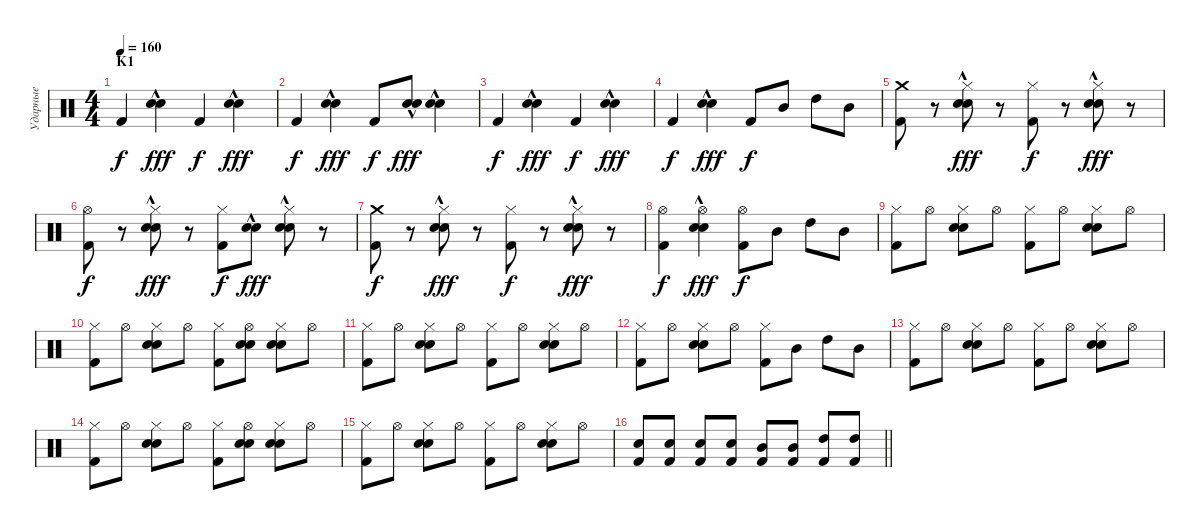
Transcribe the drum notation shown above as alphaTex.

\track ("Ударные" "Ударные") {instrument percussion}
\staff {score}
\articulation defaults
\ts (4 4)
\section ("" "K1")
\tempo 160
\clef neutral
\ks c "Kick (hit) 2".4{dy f}
("Hand Clap (hit)"{hac} "Snare (hit) 2").4{dy fff} "Kick (hit) 2".4{dy f} ("Hand Clap (hit)"{hac} "Snare (hit) 2").4{dy fff} |
"Kick (hit) 2".4{dy f} ("Hand Clap (hit)"{hac} "Snare (hit) 2").4{dy fff} "Kick (hit) 2".8{dy f} ("Hand Clap (hit)"{hac} "Snare (hit) 2").8{dy fff} ("Snare (hit) 2"{hac} "Hand Clap (hit)").4 |
"Kick (hit) 2".4{dy f} ("Hand Clap (hit)"{hac} "Snare (hit) 2").4{dy fff} "Kick (hit) 2".4{dy f} ("Hand Clap (hit)"{hac} "Snare (hit) 2").4{dy fff} |
"Kick (hit) 2".4{dy f} ("Hand Clap (hit)"{hac} "Snare (hit) 2").4{dy fff} "Kick (hit) 2".8{dy f} "Mid Tom (hit)".8 "High Tom (hit)".8 "Mid Tom (hit)".8 |
("Kick (hit) 2" "Crash medium (hit)").8 r.8 ("Hand Clap (hit)"{hac} "Snare (hit) 2" "Hi-Hat (closed)").8{dy fff} r.8 ("Kick (hit) 2" "Hi-Hat (closed)").8{dy f} r.8 ("Hand Clap (hit)"{hac} "Snare (hit) 2" "Hi-Hat (closed)").8{dy fff} r.8 |
("Kick (hit) 2" "Hi-Hat (open)").8{dy f} r.8 ("Hand Clap (hit)"{hac} "Snare (hit) 2" "Hi-Hat (closed)").8{dy fff} r.8 ("Kick (hit) 2" "Hi-Hat (closed)").8{dy f} ("Hand Clap (hit)"{hac} "Snare (hit) 2").8{dy fff} ("Hand Clap (hit)"{hac} "Snare (hit) 2" "Hi-Hat (closed)").8 r.8 |
("Kick (hit) 2" "Crash medium (hit)").8{dy f} r.8 ("Hand Clap (hit)"{hac} "Snare (hit) 2" "Hi-Hat (closed)").8{dy fff} r.8 ("Kick (hit) 2" "Hi-Hat (closed)").8{dy f} r.8 ("Hand Clap (hit)"{hac} "Snare (hit) 2" "Hi-Hat (closed)").8{dy fff} r.8 |
("Kick (hit) 2" "Hi-Hat (open)").4{dy f} ("Hand Clap (hit)"{hac} "Snare (hit) 2" "Hi-Hat (open)").4{dy fff} ("Kick (hit) 2" "Hi-Hat (open)").8{dy f} "Mid Tom (hit)".8 "High Tom (hit)".8 "Mid Tom (hit)".8 |
("Hi-Hat (closed)" "Kick (hit) 2").8 "Hi-Hat (open)".8 ("Hi-Hat (closed)" "Snare (hit) 2" "Hand Clap (hit)").8 "Hi-Hat (open)".8 ("Hi-Hat (closed)" "Kick (hit) 2").8 "Hi-Hat (open)".8 ("Hi-Hat (closed)" "Snare (hit) 2" "Hand Clap (hit)").8 "Hi-Hat (open)".8 |
("Hi-Hat (closed)" "Kick (hit) 2").8 "Hi-Hat (open)".8 ("Hi-Hat (closed)" "Snare (hit) 2" "Hand Clap (hit)").8 "Hi-Hat (open)".8 ("Hi-Hat (closed)" "Kick (hit) 2").8 ("Hi-Hat (open)" "Snare (hit) 2" "Hand Clap (hit)").8 ("Hi-Hat (closed)" "Snare (hit) 2" "Hand Clap (hit)").8 "Hi-Hat (open)".8 |
("Hi-Hat (closed)" "Kick (hit) 2").8 "Hi-Hat (open)".8 ("Hi-Hat (closed)" "Snare (hit) 2" "Hand Clap (hit)").8 "Hi-Hat (open)".8 ("Hi-Hat (closed)" "Kick (hit) 2").8 "Hi-Hat (open)".8 ("Hi-Hat (closed)" "Snare (hit) 2" "Hand Clap (hit)").8 "Hi-Hat (open)".8 |
("Hi-Hat (closed)" "Kick (hit) 2").8 "Hi-Hat (open)".8 ("Hi-Hat (closed)" "Snare (hit) 2" "Hand Clap (hit)").8 "Hi-Hat (open)".8 ("Hi-Hat (closed)" "Kick (hit) 2").8 "Mid Tom (hit)".8 "High Tom (hit)".8 "Mid Tom (hit)".8 |
("Hi-Hat (closed)" "Kick (hit) 2").8 "Hi-Hat (open)".8 ("Hi-Hat (closed)" "Snare (hit) 2" "Hand Clap (hit)").8 "Hi-Hat (open)".8 ("Hi-Hat (closed)" "Kick (hit) 2").8 "Hi-Hat (open)".8 ("Hi-Hat (closed)" "Snare (hit) 2" "Hand Clap (hit)").8 "Hi-Hat (open)".8 |
("Hi-Hat (closed)" "Kick (hit) 2").8 "Hi-Hat (open)".8 ("Hi-Hat (closed)" "Snare (hit) 2" "Hand Clap (hit)").8 "Hi-Hat (open)".8 ("Hi-Hat (closed)" "Kick (hit) 2").8 ("Hi-Hat (open)" "Snare (hit) 2" "Hand Clap (hit)").8 ("Hi-Hat (closed)" "Snare (hit) 2" "Hand Clap (hit)").8 "Hi-Hat (open)".8 |
("Hi-Hat (closed)" "Kick (hit) 2").8 "Hi-Hat (open)".8 ("Hi-Hat (closed)" "Snare (hit) 2" "Hand Clap (hit)").8 "Hi-Hat (open)".8 ("Hi-Hat (closed)" "Kick (hit) 2").8 "Hi-Hat (open)".8 ("Hi-Hat (closed)" "Snare (hit) 2" "Hand Clap (hit)").8 "Hi-Hat (open)".8 |
\barLineRight lightlight
("Kick (hit) 2" "Electric Snare (hit)").8 ("Kick (hit) 2" "Electric Snare (hit)").8 ("Kick (hit) 2" "Snare (hit) 2").8 ("Kick (hit) 2" "Snare (hit) 2").8 ("Kick (hit) 2" "Mid Tom (hit)").8 ("Kick (hit) 2" "Mid Tom (hit)").8 ("Kick (hit) 2" "High Tom (hit)").8 ("Kick (hit) 2" "High Tom (hit)").8
